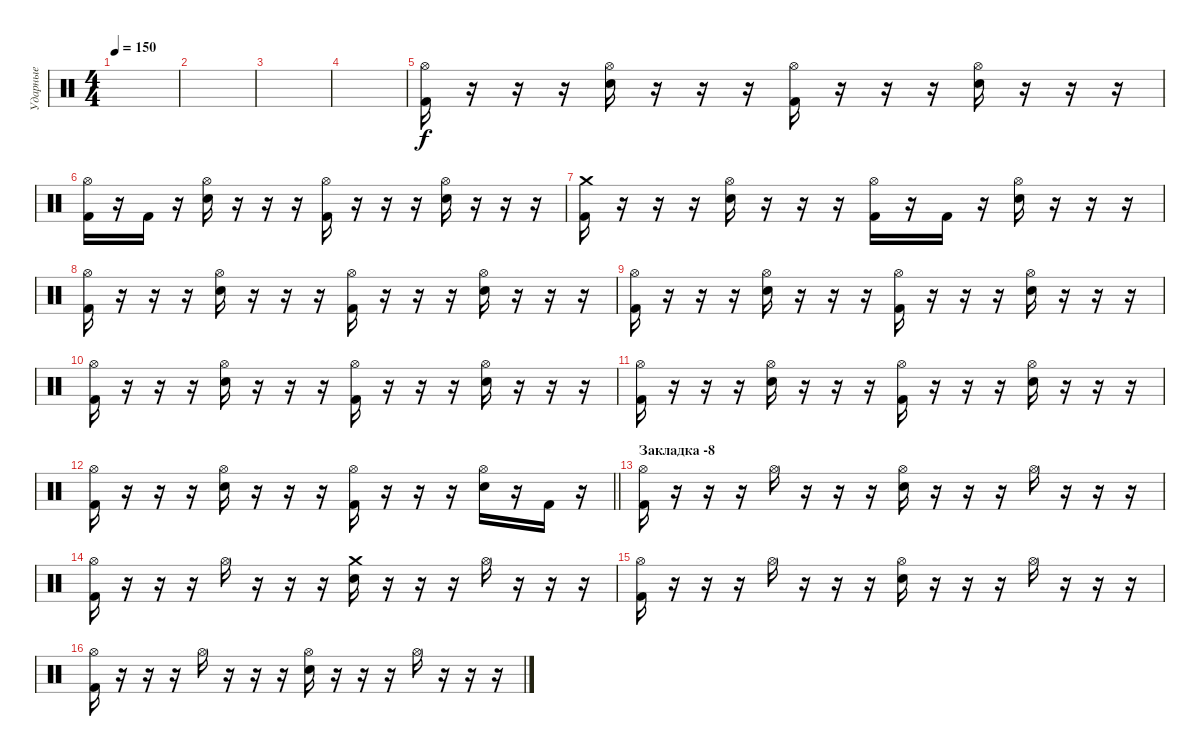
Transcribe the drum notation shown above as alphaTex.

\track ("Ударные" "Ударные") {instrument percussion}
\staff {score}
\articulation defaults
\ts (4 4)
\tempo 150
\clef neutral
\ks c
|
|
|
|
("Hi-Hat (open)" "Kick (hit) 2").16 r.16 r.16 r.16 ("Hi-Hat (open)" "Electric Snare (hit)").16 r.16 r.16 r.16 ("Hi-Hat (open)" "Kick (hit) 2").16 r.16 r.16 r.16 ("Hi-Hat (open)" "Electric Snare (hit)").16 r.16 r.16 r.16 |
("Hi-Hat (open)" "Kick (hit) 2").16 r.16 "Kick (hit) 2".16 r.16 ("Hi-Hat (open)" "Electric Snare (hit)").16 r.16 r.16 r.16 ("Hi-Hat (open)" "Kick (hit) 2").16 r.16 r.16 r.16 ("Hi-Hat (open)" "Electric Snare (hit)").16 r.16 r.16 r.16 |
("Crash medium (hit)" "Kick (hit) 2").16 r.16 r.16 r.16 ("Hi-Hat (open)" "Electric Snare (hit)").16 r.16 r.16 r.16 ("Hi-Hat (open)" "Kick (hit) 2").16 r.16 "Kick (hit) 2".16 r.16 ("Hi-Hat (open)" "Electric Snare (hit)").16 r.16 r.16 r.16 |
("Hi-Hat (open)" "Kick (hit) 2").16 r.16 r.16 r.16 ("Hi-Hat (open)" "Electric Snare (hit)").16 r.16 r.16 r.16 ("Hi-Hat (open)" "Kick (hit) 2").16 r.16 r.16 r.16 ("Hi-Hat (open)" "Electric Snare (hit)").16 r.16 r.16 r.16 |
("Hi-Hat (open)" "Kick (hit) 2").16 r.16 r.16 r.16 ("Hi-Hat (open)" "Electric Snare (hit)").16 r.16 r.16 r.16 ("Hi-Hat (open)" "Kick (hit) 2").16 r.16 r.16 r.16 ("Hi-Hat (open)" "Electric Snare (hit)").16 r.16 r.16 r.16 |
("Hi-Hat (open)" "Kick (hit) 2").16 r.16 r.16 r.16 ("Hi-Hat (open)" "Electric Snare (hit)").16 r.16 r.16 r.16 ("Hi-Hat (open)" "Kick (hit) 2").16 r.16 r.16 r.16 ("Hi-Hat (open)" "Electric Snare (hit)").16 r.16 r.16 r.16 |
("Hi-Hat (open)" "Kick (hit) 2").16 r.16 r.16 r.16 ("Hi-Hat (open)" "Electric Snare (hit)").16 r.16 r.16 r.16 ("Hi-Hat (open)" "Kick (hit) 2").16 r.16 r.16 r.16 ("Hi-Hat (open)" "Electric Snare (hit)").16 r.16 r.16 r.16 |
\barLineRight lightlight
("Hi-Hat (open)" "Kick (hit) 2").16 r.16 r.16 r.16 ("Hi-Hat (open)" "Electric Snare (hit)").16 r.16 r.16 r.16 ("Hi-Hat (open)" "Kick (hit) 2").16 r.16 r.16 r.16 ("Hi-Hat (open)" "Electric Snare (hit)").16 r.16 "Kick (hit) 2".16 r.16 |
\section ("" "Закладка -8")
("Hi-Hat (open)" "Kick (hit) 2").16 r.16 r.16 r.16 "Hi-Hat (open)".16 r.16 r.16 r.16 ("Hi-Hat (open)" "Electric Snare (hit)").16 r.16 r.16 r.16 "Hi-Hat (open)".16 r.16 r.16 r.16 |
("Hi-Hat (open)" "Kick (hit) 2").16 r.16 r.16 r.16 "Hi-Hat (open)".16 r.16 r.16 r.16 ("Crash medium (hit)" "Electric Snare (hit)").16 r.16 r.16 r.16 "Hi-Hat (open)".16 r.16 r.16 r.16 |
("Hi-Hat (open)" "Kick (hit) 2").16 r.16 r.16 r.16 "Hi-Hat (open)".16 r.16 r.16 r.16 ("Hi-Hat (open)" "Electric Snare (hit)").16 r.16 r.16 r.16 "Hi-Hat (open)".16 r.16 r.16 r.16 |
("Hi-Hat (open)" "Kick (hit) 2").16 r.16 r.16 r.16 "Hi-Hat (open)".16 r.16 r.16 r.16 ("Hi-Hat (open)" "Electric Snare (hit)").16 r.16 r.16 r.16 "Hi-Hat (open)".16 r.16 r.16 r.16
